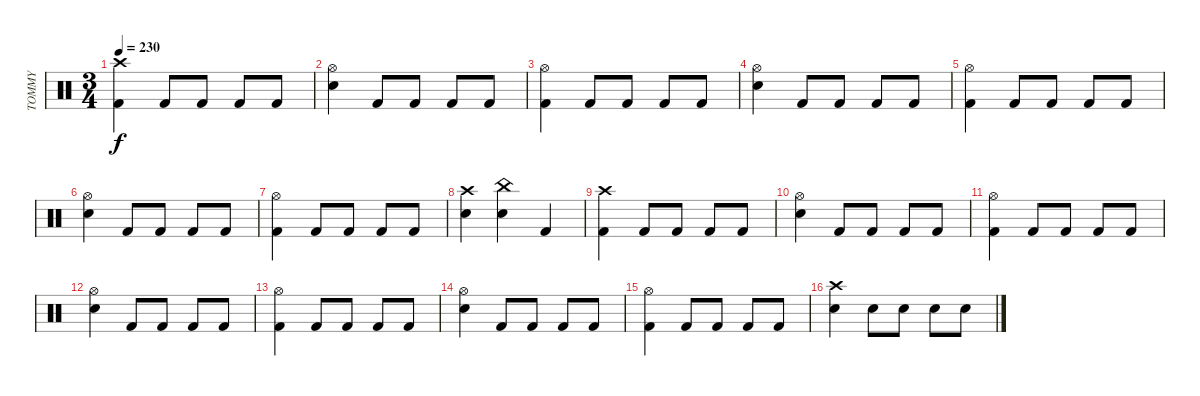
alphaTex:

\track ("TOMMY" "TOMMY") {instrument percussion}
\staff {score}
\articulation defaults
\ts (3 4)
\tempo 230
\clef neutral
\ks c
("Kick (hit) 2" "Crash high (hit)").4{dy f} "Kick (hit) 2".8 "Kick (hit) 2".8 "Kick (hit) 2".8 "Kick (hit) 2".8 |
("Snare (hit) 2" "Hi-Hat (open)").4 "Kick (hit) 2".8 "Kick (hit) 2".8 "Kick (hit) 2".8 "Kick (hit) 2".8 |
("Kick (hit) 2" "Hi-Hat (open)").4 "Kick (hit) 2".8 "Kick (hit) 2".8 "Kick (hit) 2".8 "Kick (hit) 2".8 |
("Snare (hit) 2" "Hi-Hat (open)").4 "Kick (hit) 2".8 "Kick (hit) 2".8 "Kick (hit) 2".8 "Kick (hit) 2".8 |
("Kick (hit) 2" "Hi-Hat (open)").4 "Kick (hit) 2".8 "Kick (hit) 2".8 "Kick (hit) 2".8 "Kick (hit) 2".8 |
("Snare (hit) 2" "Hi-Hat (open)").4 "Kick (hit) 2".8 "Kick (hit) 2".8 "Kick (hit) 2".8 "Kick (hit) 2".8 |
("Kick (hit) 2" "Hi-Hat (open)").4 "Kick (hit) 2".8 "Kick (hit) 2".8 "Kick (hit) 2".8 "Kick (hit) 2".8 |
("Snare (hit) 2" "Crash high (hit)").4 ("Snare (hit) 2" "China (hit)").4 "Kick (hit) 2".4 |
("Kick (hit) 2" "Crash high (hit)").4 "Kick (hit) 2".8 "Kick (hit) 2".8 "Kick (hit) 2".8 "Kick (hit) 2".8 |
("Snare (hit) 2" "Hi-Hat (open)").4 "Kick (hit) 2".8 "Kick (hit) 2".8 "Kick (hit) 2".8 "Kick (hit) 2".8 |
("Kick (hit) 2" "Hi-Hat (open)").4 "Kick (hit) 2".8 "Kick (hit) 2".8 "Kick (hit) 2".8 "Kick (hit) 2".8 |
("Snare (hit) 2" "Hi-Hat (open)").4 "Kick (hit) 2".8 "Kick (hit) 2".8 "Kick (hit) 2".8 "Kick (hit) 2".8 |
("Kick (hit) 2" "Hi-Hat (open)").4 "Kick (hit) 2".8 "Kick (hit) 2".8 "Kick (hit) 2".8 "Kick (hit) 2".8 |
("Snare (hit) 2" "Hi-Hat (open)").4 "Kick (hit) 2".8 "Kick (hit) 2".8 "Kick (hit) 2".8 "Kick (hit) 2".8 |
("Kick (hit) 2" "Hi-Hat (open)").4 "Kick (hit) 2".8 "Kick (hit) 2".8 "Kick (hit) 2".8 "Kick (hit) 2".8 |
("Snare (hit) 2" "Crash high (hit)").4 "Snare (hit) 2".8 "Snare (hit) 2".8 "Snare (hit) 2".8 "Snare (hit) 2".8
